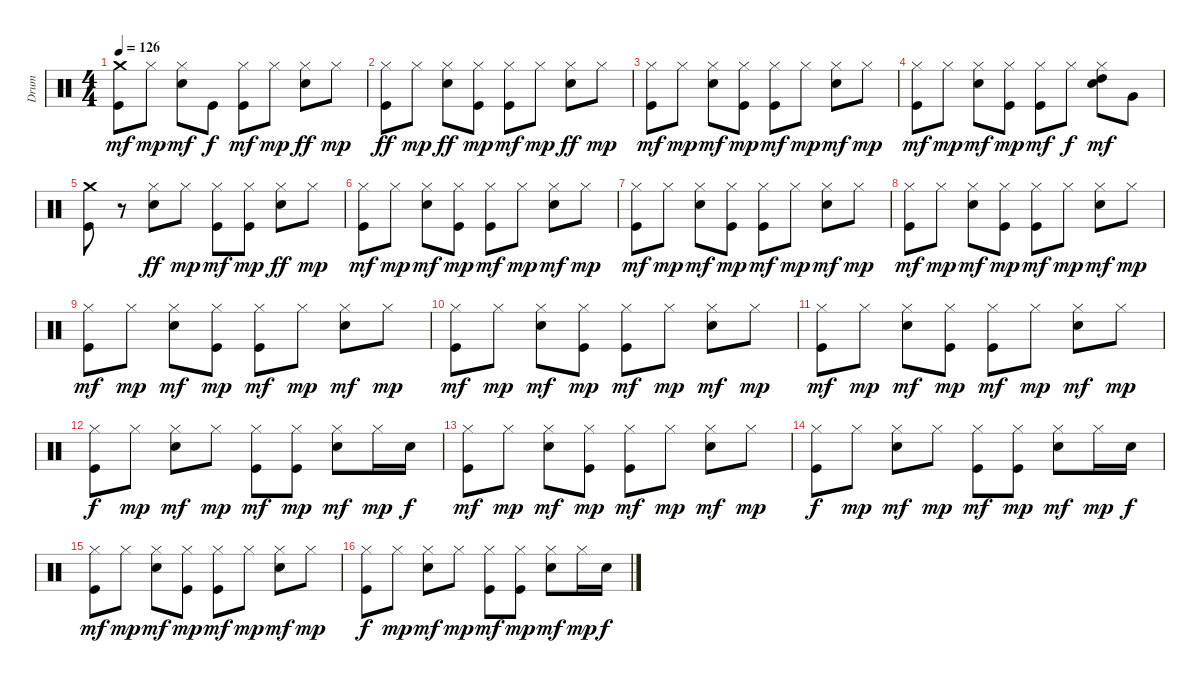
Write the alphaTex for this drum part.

\track ("Drum" "Drum") {instrument percussion}
\staff {score}
\articulation defaults
\ts (4 4)
\tempo 126
\clef neutral
\ks c
("Kick (hit)" "Crash medium (hit)").8{dy mf} "Hi-Hat (closed)".8{dy mp} ("Snare (hit) 2" "Hi-Hat (closed)").8{dy mf} "Kick (hit)".8{dy f} ("Kick (hit)" "Hi-Hat (closed)").8{dy mf} "Hi-Hat (closed)".8{dy mp} ("Snare (hit) 2" "Hi-Hat (closed)").8{dy ff} "Hi-Hat (closed)".8{dy mp} |
("Kick (hit)" "Hi-Hat (closed)").8{dy ff} "Hi-Hat (closed)".8{dy mp} ("Snare (hit) 2" "Hi-Hat (closed)").8{dy ff} ("Kick (hit)" "Hi-Hat (closed)").8{dy mp} ("Kick (hit)" "Hi-Hat (closed)").8{dy mf} "Hi-Hat (closed)".8{dy mp} ("Snare (hit) 2" "Hi-Hat (closed)").8{dy ff} "Hi-Hat (closed)".8{dy mp} |
("Kick (hit)" "Hi-Hat (closed)").8{dy mf} "Hi-Hat (closed)".8{dy mp} ("Snare (hit) 2" "Hi-Hat (closed)").8{dy mf} ("Kick (hit)" "Hi-Hat (closed)").8{dy mp} ("Kick (hit)" "Hi-Hat (closed)").8{dy mf} "Hi-Hat (closed)".8{dy mp} ("Snare (hit) 2" "Hi-Hat (closed)").8{dy mf} "Hi-Hat (closed)".8{dy mp} |
("Kick (hit)" "Hi-Hat (closed)").8{dy mf} "Hi-Hat (closed)".8{dy mp} ("Snare (hit) 2" "Hi-Hat (closed)").8{dy mf} ("Kick (hit)" "Hi-Hat (closed)").8{dy mp} ("Kick (hit)" "Hi-Hat (closed)").8{dy mf} "Hi-Hat (closed)".8{dy f} ("Snare (hit) 2" "High Tom (hit)" "Hi-Hat (closed)").8{dy mf} "Very Low Tom (hit)".8 |
("Kick (hit)" "Crash medium (hit)").8 r.8 ("Snare (hit) 2" "Hi-Hat (closed)").8{dy ff} "Hi-Hat (closed)".8{dy mp} ("Kick (hit)" "Hi-Hat (closed)").8{dy mf} ("Kick (hit)" "Hi-Hat (closed)").8{dy mp} ("Snare (hit) 2" "Hi-Hat (closed)").8{dy ff} "Hi-Hat (closed)".8{dy mp} |
("Kick (hit)" "Hi-Hat (closed)").8{dy mf} "Hi-Hat (closed)".8{dy mp} ("Snare (hit) 2" "Hi-Hat (closed)").8{dy mf} ("Kick (hit)" "Hi-Hat (closed)").8{dy mp} ("Kick (hit)" "Hi-Hat (closed)").8{dy mf} "Hi-Hat (closed)".8{dy mp} ("Snare (hit) 2" "Hi-Hat (closed)").8{dy mf} "Hi-Hat (closed)".8{dy mp} |
("Kick (hit)" "Hi-Hat (closed)").8{dy mf} "Hi-Hat (closed)".8{dy mp} ("Snare (hit) 2" "Hi-Hat (closed)").8{dy mf} ("Kick (hit)" "Hi-Hat (closed)").8{dy mp} ("Kick (hit)" "Hi-Hat (closed)").8{dy mf} "Hi-Hat (closed)".8{dy mp} ("Snare (hit) 2" "Hi-Hat (closed)").8{dy mf} "Hi-Hat (closed)".8{dy mp} |
("Kick (hit)" "Hi-Hat (closed)").8{dy mf} "Hi-Hat (closed)".8{dy mp} ("Snare (hit) 2" "Hi-Hat (closed)").8{dy mf} ("Kick (hit)" "Hi-Hat (closed)").8{dy mp} ("Kick (hit)" "Hi-Hat (closed)").8{dy mf} "Hi-Hat (closed)".8{dy mp} ("Snare (hit) 2" "Hi-Hat (closed)").8{dy mf} "Hi-Hat (closed)".8{dy mp} |
("Kick (hit)" "Hi-Hat (closed)").8{dy mf} "Hi-Hat (closed)".8{dy mp} ("Snare (hit) 2" "Hi-Hat (closed)").8{dy mf} ("Kick (hit)" "Hi-Hat (closed)").8{dy mp} ("Kick (hit)" "Hi-Hat (closed)").8{dy mf} "Hi-Hat (closed)".8{dy mp} ("Snare (hit) 2" "Hi-Hat (closed)").8{dy mf} "Hi-Hat (closed)".8{dy mp} |
("Kick (hit)" "Hi-Hat (closed)").8{dy mf} "Hi-Hat (closed)".8{dy mp} ("Snare (hit) 2" "Hi-Hat (closed)").8{dy mf} ("Kick (hit)" "Hi-Hat (closed)").8{dy mp} ("Kick (hit)" "Hi-Hat (closed)").8{dy mf} "Hi-Hat (closed)".8{dy mp} ("Snare (hit) 2" "Hi-Hat (closed)").8{dy mf} "Hi-Hat (closed)".8{dy mp} |
("Kick (hit)" "Hi-Hat (closed)").8{dy mf} "Hi-Hat (closed)".8{dy mp} ("Snare (hit) 2" "Hi-Hat (closed)").8{dy mf} ("Kick (hit)" "Hi-Hat (closed)").8{dy mp} ("Kick (hit)" "Hi-Hat (closed)").8{dy mf} "Hi-Hat (closed)".8{dy mp} ("Snare (hit) 2" "Hi-Hat (closed)").8{dy mf} "Hi-Hat (closed)".8{dy mp} |
("Kick (hit)" "Hi-Hat (closed)").8{dy f} "Hi-Hat (closed)".8{dy mp} ("Snare (hit) 2" "Hi-Hat (closed)").8{dy mf} "Hi-Hat (closed)".8{dy mp} ("Kick (hit)" "Hi-Hat (closed)").8{dy mf} ("Kick (hit)" "Hi-Hat (closed)").8{dy mp} ("Snare (hit) 2" "Hi-Hat (closed)").8{dy mf} "Hi-Hat (closed)".16{dy mp} "Snare (hit) 2".16{dy f} |
("Kick (hit)" "Hi-Hat (closed)").8{dy mf} "Hi-Hat (closed)".8{dy mp} ("Snare (hit) 2" "Hi-Hat (closed)").8{dy mf} ("Kick (hit)" "Hi-Hat (closed)").8{dy mp} ("Kick (hit)" "Hi-Hat (closed)").8{dy mf} "Hi-Hat (closed)".8{dy mp} ("Snare (hit) 2" "Hi-Hat (closed)").8{dy mf} "Hi-Hat (closed)".8{dy mp} |
("Kick (hit)" "Hi-Hat (closed)").8{dy f} "Hi-Hat (closed)".8{dy mp} ("Snare (hit) 2" "Hi-Hat (closed)").8{dy mf} "Hi-Hat (closed)".8{dy mp} ("Kick (hit)" "Hi-Hat (closed)").8{dy mf} ("Kick (hit)" "Hi-Hat (closed)").8{dy mp} ("Snare (hit) 2" "Hi-Hat (closed)").8{dy mf} "Hi-Hat (closed)".16{dy mp} "Snare (hit) 2".16{dy f} |
("Kick (hit)" "Hi-Hat (closed)").8{dy mf} "Hi-Hat (closed)".8{dy mp} ("Snare (hit) 2" "Hi-Hat (closed)").8{dy mf} ("Kick (hit)" "Hi-Hat (closed)").8{dy mp} ("Kick (hit)" "Hi-Hat (closed)").8{dy mf} "Hi-Hat (closed)".8{dy mp} ("Snare (hit) 2" "Hi-Hat (closed)").8{dy mf} "Hi-Hat (closed)".8{dy mp} |
("Kick (hit)" "Hi-Hat (closed)").8{dy f} "Hi-Hat (closed)".8{dy mp} ("Snare (hit) 2" "Hi-Hat (closed)").8{dy mf} "Hi-Hat (closed)".8{dy mp} ("Kick (hit)" "Hi-Hat (closed)").8{dy mf} ("Kick (hit)" "Hi-Hat (closed)").8{dy mp} ("Snare (hit) 2" "Hi-Hat (closed)").8{dy mf} "Hi-Hat (closed)".16{dy mp} "Snare (hit) 2".16{dy f}
